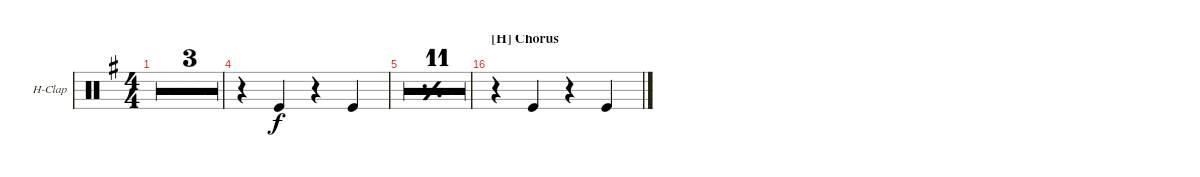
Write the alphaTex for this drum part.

\defaultSystemsLayout 4
\bracketExtendMode groupsimilarinstruments
\firstSystemTrackNameOrientation horizontal
\otherSystemsTrackNameOrientation horizontal
\track ("Hand Clap" "H-Clap") {multiBarRest instrument percussion}
\staff {score}
\articulation defaults
\ts (4 4)
\tempo 98
\clef neutral
\ks g
r.1{dy f} |
r.1 |
r.1 |
r.4 "Kick (hit)".4 r.4 "Kick (hit)".4 |
\simile simple
|
|
|
|
|
|
|
|
|
|
\simile none
r.1 |
\section ("H" "Chorus")
r.4 "Kick (hit)".4 r.4 "Kick (hit)".4
